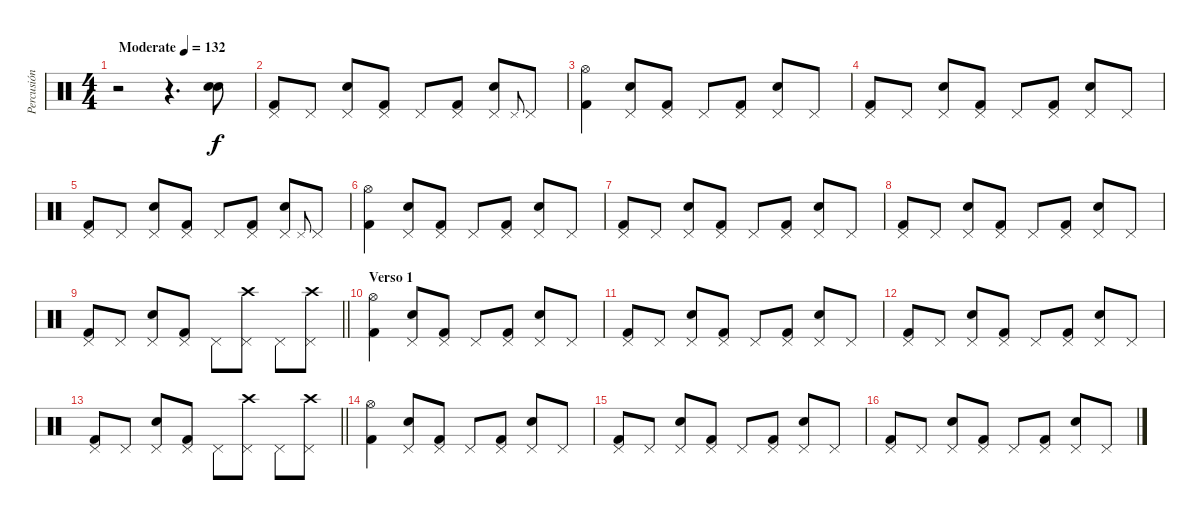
\track ("Percusión" "Percusión") {instrument percussion}
\staff {score}
\articulation defaults
\ts (4 4)
\tempo (132 "Moderate")
\clef neutral
\ks c
r.2{dy f} r.4{d} ("Electric Snare (hit)" "Electric Snare (hit)").8 |
("Pedal Hi-Hat (hit)" "Kick (hit) 2").8 "Pedal Hi-Hat (hit)".8 ("Pedal Hi-Hat (hit)" "Electric Snare (hit)").8 ("Pedal Hi-Hat (hit)" "Kick (hit) 2").8 "Pedal Hi-Hat (hit)".8 ("Pedal Hi-Hat (hit)" "Kick (hit) 2").8 ("Pedal Hi-Hat (hit)" "Electric Snare (hit)").8 "Pedal Hi-Hat (hit)".8{gr onbeat} "Pedal Hi-Hat (hit)".8 |
("Hi-Hat (open)" "Kick (hit) 2").4 ("Pedal Hi-Hat (hit)" "Electric Snare (hit)").8 ("Pedal Hi-Hat (hit)" "Kick (hit) 2").8 "Pedal Hi-Hat (hit)".8 ("Pedal Hi-Hat (hit)" "Kick (hit) 2").8 ("Pedal Hi-Hat (hit)" "Electric Snare (hit)").8 "Pedal Hi-Hat (hit)".8 |
("Pedal Hi-Hat (hit)" "Kick (hit) 2").8 "Pedal Hi-Hat (hit)".8 ("Pedal Hi-Hat (hit)" "Electric Snare (hit)").8 ("Pedal Hi-Hat (hit)" "Kick (hit) 2").8 "Pedal Hi-Hat (hit)".8 ("Pedal Hi-Hat (hit)" "Kick (hit) 2").8 ("Pedal Hi-Hat (hit)" "Electric Snare (hit)").8 "Pedal Hi-Hat (hit)".8 |
("Pedal Hi-Hat (hit)" "Kick (hit) 2").8 "Pedal Hi-Hat (hit)".8 ("Pedal Hi-Hat (hit)" "Electric Snare (hit)").8 ("Pedal Hi-Hat (hit)" "Kick (hit) 2").8 "Pedal Hi-Hat (hit)".8 ("Pedal Hi-Hat (hit)" "Kick (hit) 2").8 ("Pedal Hi-Hat (hit)" "Electric Snare (hit)").8 "Pedal Hi-Hat (hit)".8{gr onbeat} "Pedal Hi-Hat (hit)".8 |
("Hi-Hat (open)" "Kick (hit) 2").4 ("Pedal Hi-Hat (hit)" "Electric Snare (hit)").8 ("Pedal Hi-Hat (hit)" "Kick (hit) 2").8 "Pedal Hi-Hat (hit)".8 ("Pedal Hi-Hat (hit)" "Kick (hit) 2").8 ("Pedal Hi-Hat (hit)" "Electric Snare (hit)").8 "Pedal Hi-Hat (hit)".8 |
("Pedal Hi-Hat (hit)" "Kick (hit) 2").8 "Pedal Hi-Hat (hit)".8 ("Pedal Hi-Hat (hit)" "Electric Snare (hit)").8 ("Pedal Hi-Hat (hit)" "Kick (hit) 2").8 "Pedal Hi-Hat (hit)".8 ("Pedal Hi-Hat (hit)" "Kick (hit) 2").8 ("Pedal Hi-Hat (hit)" "Electric Snare (hit)").8 "Pedal Hi-Hat (hit)".8 |
("Pedal Hi-Hat (hit)" "Kick (hit) 2").8 "Pedal Hi-Hat (hit)".8 ("Pedal Hi-Hat (hit)" "Electric Snare (hit)").8 ("Pedal Hi-Hat (hit)" "Kick (hit) 2").8 "Pedal Hi-Hat (hit)".8 ("Pedal Hi-Hat (hit)" "Kick (hit) 2").8 ("Pedal Hi-Hat (hit)" "Electric Snare (hit)").8 "Pedal Hi-Hat (hit)".8 |
\barLineRight lightlight
("Pedal Hi-Hat (hit)" "Kick (hit) 2").8 "Pedal Hi-Hat (hit)".8 ("Pedal Hi-Hat (hit)" "Electric Snare (hit)").8 ("Pedal Hi-Hat (hit)" "Kick (hit) 2").8 "Pedal Hi-Hat (hit)".8 ("Pedal Hi-Hat (hit)" "Crash high (hit)").8 "Pedal Hi-Hat (hit)".8 ("Pedal Hi-Hat (hit)" "Crash high (hit)").8 |
\section ("" "Verso 1")
("Hi-Hat (open)" "Kick (hit) 2").4 ("Pedal Hi-Hat (hit)" "Electric Snare (hit)").8 ("Pedal Hi-Hat (hit)" "Kick (hit) 2").8 "Pedal Hi-Hat (hit)".8 ("Pedal Hi-Hat (hit)" "Kick (hit) 2").8 ("Pedal Hi-Hat (hit)" "Electric Snare (hit)").8 "Pedal Hi-Hat (hit)".8 |
("Pedal Hi-Hat (hit)" "Kick (hit) 2").8 "Pedal Hi-Hat (hit)".8 ("Pedal Hi-Hat (hit)" "Electric Snare (hit)").8 ("Pedal Hi-Hat (hit)" "Kick (hit) 2").8 "Pedal Hi-Hat (hit)".8 ("Pedal Hi-Hat (hit)" "Kick (hit) 2").8 ("Pedal Hi-Hat (hit)" "Electric Snare (hit)").8 "Pedal Hi-Hat (hit)".8 |
("Pedal Hi-Hat (hit)" "Kick (hit) 2").8 "Pedal Hi-Hat (hit)".8 ("Pedal Hi-Hat (hit)" "Electric Snare (hit)").8 ("Pedal Hi-Hat (hit)" "Kick (hit) 2").8 "Pedal Hi-Hat (hit)".8 ("Pedal Hi-Hat (hit)" "Kick (hit) 2").8 ("Pedal Hi-Hat (hit)" "Electric Snare (hit)").8 "Pedal Hi-Hat (hit)".8 |
\barLineRight lightlight
("Pedal Hi-Hat (hit)" "Kick (hit) 2").8 "Pedal Hi-Hat (hit)".8 ("Pedal Hi-Hat (hit)" "Electric Snare (hit)").8 ("Pedal Hi-Hat (hit)" "Kick (hit) 2").8 "Pedal Hi-Hat (hit)".8 ("Pedal Hi-Hat (hit)" "Crash high (hit)").8 "Pedal Hi-Hat (hit)".8 ("Pedal Hi-Hat (hit)" "Crash high (hit)").8 |
("Hi-Hat (open)" "Kick (hit) 2").4 ("Pedal Hi-Hat (hit)" "Electric Snare (hit)").8 ("Pedal Hi-Hat (hit)" "Kick (hit) 2").8 "Pedal Hi-Hat (hit)".8 ("Pedal Hi-Hat (hit)" "Kick (hit) 2").8 ("Pedal Hi-Hat (hit)" "Electric Snare (hit)").8 "Pedal Hi-Hat (hit)".8 |
("Pedal Hi-Hat (hit)" "Kick (hit) 2").8 "Pedal Hi-Hat (hit)".8 ("Pedal Hi-Hat (hit)" "Electric Snare (hit)").8 ("Pedal Hi-Hat (hit)" "Kick (hit) 2").8 "Pedal Hi-Hat (hit)".8 ("Pedal Hi-Hat (hit)" "Kick (hit) 2").8 ("Pedal Hi-Hat (hit)" "Electric Snare (hit)").8 "Pedal Hi-Hat (hit)".8 |
("Pedal Hi-Hat (hit)" "Kick (hit) 2").8 "Pedal Hi-Hat (hit)".8 ("Pedal Hi-Hat (hit)" "Electric Snare (hit)").8 ("Pedal Hi-Hat (hit)" "Kick (hit) 2").8 "Pedal Hi-Hat (hit)".8 ("Pedal Hi-Hat (hit)" "Kick (hit) 2").8 ("Pedal Hi-Hat (hit)" "Electric Snare (hit)").8 "Pedal Hi-Hat (hit)".8
